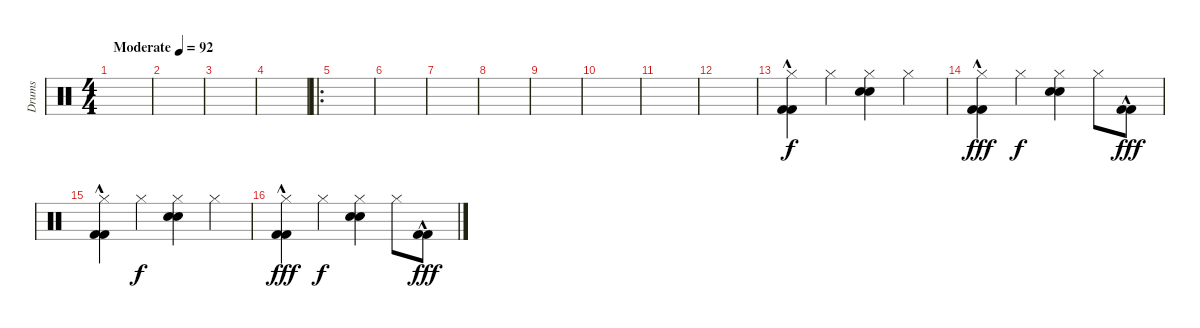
\track ("Drums" "Drums") {instrument percussion}
\staff {score}
\articulation defaults
\ts (4 4)
\tempo (92 "Moderate")
\clef neutral
\ks c
|
|
|
|
\ro
|
|
|
|
|
|
|
|
("Hi-Hat (closed)" "Kick (hit) 2"{hac} "Kick (hit) 2"{hac}).4 "Hi-Hat (closed)".4{dy f} ("Hi-Hat (closed)" "Snare (hit) 2" "Electric Snare (hit)").4 "Hi-Hat (closed)".4 |
("Hi-Hat (closed)" "Kick (hit) 2"{hac} "Kick (hit) 2"{hac}).4{dy fff} "Hi-Hat (closed)".4{dy f} ("Hi-Hat (closed)" "Snare (hit) 2" "Electric Snare (hit)").4 "Hi-Hat (closed)".8 ("Kick (hit) 2"{hac} "Kick (hit) 2"{hac}).8{dy fff} |
("Hi-Hat (closed)" "Kick (hit) 2"{hac} "Kick (hit) 2"{hac}).4 "Hi-Hat (closed)".4{dy f} ("Hi-Hat (closed)" "Snare (hit) 2" "Electric Snare (hit)").4 "Hi-Hat (closed)".4 |
("Hi-Hat (closed)" "Kick (hit) 2"{hac} "Kick (hit) 2"{hac}).4{dy fff} "Hi-Hat (closed)".4{dy f} ("Hi-Hat (closed)" "Snare (hit) 2" "Electric Snare (hit)").4 "Hi-Hat (closed)".8 ("Kick (hit) 2"{hac} "Kick (hit) 2"{hac}).8{dy fff}
